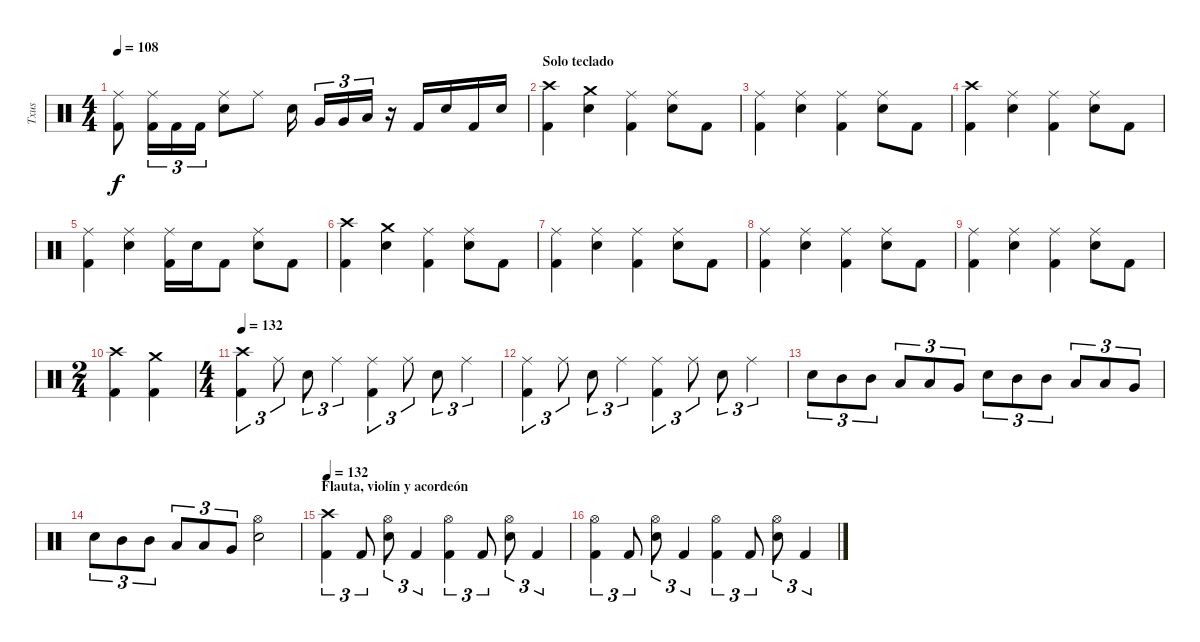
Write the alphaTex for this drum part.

\track ("Txus" "Txus") {instrument percussion}
\staff {score}
\articulation defaults
\ts (4 4)
\tempo 108
\clef neutral
\ks c
("Kick (hit) 2" "Ride (middle)").8{dy f} ("Kick (hit) 2" "Ride (middle)").16{tu (3 2)} "Kick (hit) 2".16{tu (3 2)} "Kick (hit) 2".16{tu (3 2)} ("Electric Snare (hit)" "Ride (middle)").8 "Ride (middle)".8 "Electric Snare (hit)".16 "Very Low Tom (hit)".16{tu (3 2) volume 12} "Very Low Tom (hit)".16{tu (3 2)} "Low Floor Tom (hit)".16{tu (3 2)} r.16 "Kick (hit) 2".16{volume 16} "Electric Snare (hit)".16 "Kick (hit) 2".16 "Electric Snare (hit)".16 |
\section ("" "Solo teclado")
("Kick (hit) 2" "Crash high (hit)").4 ("Electric Snare (hit)" "Crash medium (hit)").4 ("Kick (hit) 2" "Ride (middle)").4 ("Electric Snare (hit)" "Ride (middle)").8 "Kick (hit) 2".8 |
("Kick (hit) 2" "Ride (middle)").4 ("Electric Snare (hit)" "Ride (middle)").4 ("Kick (hit) 2" "Ride (middle)").4 ("Electric Snare (hit)" "Ride (middle)").8 "Kick (hit) 2".8 |
("Kick (hit) 2" "Crash high (hit)").4 ("Electric Snare (hit)" "Ride (middle)").4 ("Kick (hit) 2" "Ride (middle)").4 ("Electric Snare (hit)" "Ride (middle)").8 "Kick (hit) 2".8 |
("Kick (hit) 2" "Ride (middle)").4 ("Electric Snare (hit)" "Ride (middle)").4 ("Kick (hit) 2" "Ride (middle)").16 "Electric Snare (hit)".16 "Kick (hit) 2".8 ("Electric Snare (hit)" "Ride (middle)").8 "Kick (hit) 2".8 |
("Kick (hit) 2" "Crash high (hit)").4 ("Electric Snare (hit)" "Crash medium (hit)").4 ("Kick (hit) 2" "Ride (middle)").4 ("Electric Snare (hit)" "Ride (middle)").8 "Kick (hit) 2".8 |
("Kick (hit) 2" "Ride (middle)").4 ("Electric Snare (hit)" "Ride (middle)").4 ("Kick (hit) 2" "Ride (middle)").4 ("Electric Snare (hit)" "Ride (middle)").8 "Kick (hit) 2".8 |
("Kick (hit) 2" "Ride (middle)").4 ("Electric Snare (hit)" "Ride (middle)").4 ("Kick (hit) 2" "Ride (middle)").4 ("Electric Snare (hit)" "Ride (middle)").8 "Kick (hit) 2".8 |
("Kick (hit) 2" "Ride (middle)").4 ("Electric Snare (hit)" "Ride (middle)").4 ("Kick (hit) 2" "Ride (middle)").4 ("Electric Snare (hit)" "Ride (middle)").8 "Kick (hit) 2".8 |
\ts (2 4)
("Kick (hit) 2" "Crash high (hit)").4 ("Kick (hit) 2" "Crash medium (hit)").4 |
\ts (4 4)
\tempo 132
("Kick (hit) 2" "Crash high (hit)").4{tu (3 2)} "Ride (middle)".8{tu (3 2)} "Electric Snare (hit)".8{tu (3 2)} "Ride (middle)".4{tu (3 2)} ("Kick (hit) 2" "Ride (middle)").4{tu (3 2)} "Ride (middle)".8{tu (3 2)} "Electric Snare (hit)".8{tu (3 2)} "Ride (middle)".4{tu (3 2)} |
("Kick (hit) 2" "Ride (middle)").4{tu (3 2)} "Ride (middle)".8{tu (3 2)} "Electric Snare (hit)".8{tu (3 2)} "Ride (middle)".4{tu (3 2)} ("Kick (hit) 2" "Ride (middle)").4{tu (3 2)} "Ride (middle)".8{tu (3 2)} "Electric Snare (hit)".8{tu (3 2)} "Ride (middle)".4{tu (3 2)} |
"Electric Snare (hit)".8{tu (3 2)} "Mid Tom (hit)".8{tu (3 2)} "Mid Tom (hit)".8{tu (3 2)} "Low Tom (hit)".8{tu (3 2)} "Low Tom (hit)".8{tu (3 2)} "Very Low Tom (hit)".8{tu (3 2)} "Electric Snare (hit)".8{tu (3 2)} "Mid Tom (hit)".8{tu (3 2)} "Mid Tom (hit)".8{tu (3 2)} "Low Tom (hit)".8{tu (3 2)} "Low Tom (hit)".8{tu (3 2)} "Very Low Tom (hit)".8{tu (3 2)} |
"Electric Snare (hit)".8{tu (3 2)} "Mid Tom (hit)".8{tu (3 2)} "Mid Tom (hit)".8{tu (3 2)} "Low Tom (hit)".8{tu (3 2)} "Low Tom (hit)".8{tu (3 2)} "Very Low Tom (hit)".8{tu (3 2)} ("Electric Snare (hit)" "Hi-Hat (open)").2 |
\section ("" "Flauta, violín y acordeón")
\tempo 132
("Kick (hit) 2" "Crash high (hit)").4{tu (3 2)} "Kick (hit) 2".8{tu (3 2)} ("Electric Snare (hit)" "Hi-Hat (open)").8{tu (3 2)} "Kick (hit) 2".4{tu (3 2)} ("Kick (hit) 2" "Hi-Hat (open)").4{tu (3 2)} "Kick (hit) 2".8{tu (3 2)} ("Electric Snare (hit)" "Hi-Hat (open)").8{tu (3 2)} "Kick (hit) 2".4{tu (3 2)} |
("Kick (hit) 2" "Hi-Hat (open)").4{tu (3 2)} "Kick (hit) 2".8{tu (3 2)} ("Electric Snare (hit)" "Hi-Hat (open)").8{tu (3 2)} "Kick (hit) 2".4{tu (3 2)} ("Kick (hit) 2" "Hi-Hat (open)").4{tu (3 2)} "Kick (hit) 2".8{tu (3 2)} ("Electric Snare (hit)" "Hi-Hat (open)").8{tu (3 2)} "Kick (hit) 2".4{tu (3 2)}
